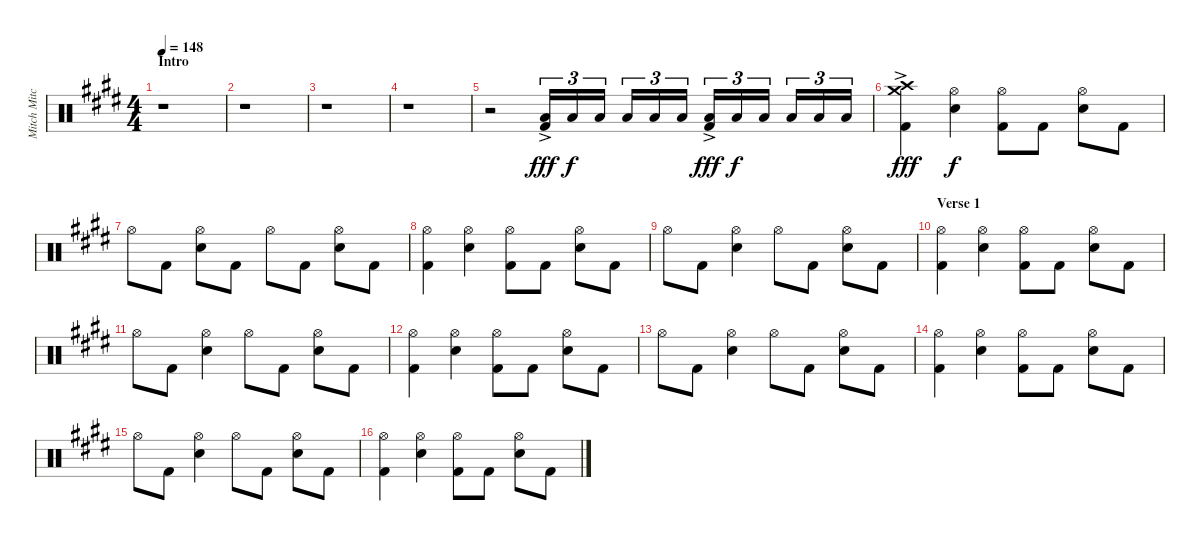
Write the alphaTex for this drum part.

\track ("Mitch Mitchell" "Mitch Mitc") {instrument percussion}
\staff {score}
\articulation defaults
\ts (4 4)
\section ("" "Intro")
\tempo 148
\clef neutral
\ks e
r.1{dy fff} |
r.1 |
r.1 |
r.1 |
r.2 ("Low Tom (hit)"{ac} "Kick (hit) 2"{ac}).16{tu (3 2)} "Low Tom (hit)".16{tu (3 2) dy f} "Low Tom (hit)".16{tu (3 2)} "Low Tom (hit)".16{tu (3 2)} "Low Tom (hit)".16{tu (3 2)} "Low Tom (hit)".16{tu (3 2)} ("Low Tom (hit)"{ac} "Kick (hit) 2"{ac}).16{tu (3 2) dy fff} "Low Tom (hit)".16{tu (3 2) dy f} "Low Tom (hit)".16{tu (3 2)} "Low Tom (hit)".16{tu (3 2)} "Low Tom (hit)".16{tu (3 2)} "Low Tom (hit)".16{tu (3 2)} |
("Crash high (hit)"{ac} "Crash medium (hit)" "Kick (hit) 2"{ac}).4{dy fff} ("Hi-Hat (open)" "Snare (hit) 2").4{dy f} ("Hi-Hat (open)" "Kick (hit) 2").8 "Kick (hit) 2".8 ("Hi-Hat (open)" "Snare (hit) 2").8 "Kick (hit) 2".8 |
"Hi-Hat (open)".8 "Kick (hit) 2".8 ("Hi-Hat (open)" "Snare (hit) 2").8 "Kick (hit) 2".8 "Hi-Hat (open)".8 "Kick (hit) 2".8 ("Hi-Hat (open)" "Snare (hit) 2").8 "Kick (hit) 2".8 |
("Hi-Hat (open)" "Kick (hit) 2").4 ("Hi-Hat (open)" "Snare (hit) 2").4 ("Hi-Hat (open)" "Kick (hit) 2").8 "Kick (hit) 2".8 ("Hi-Hat (open)" "Snare (hit) 2").8 "Kick (hit) 2".8 |
"Hi-Hat (open)".8 "Kick (hit) 2".8 ("Hi-Hat (open)" "Snare (hit) 2").4 "Hi-Hat (open)".8 "Kick (hit) 2".8 ("Hi-Hat (open)" "Snare (hit) 2").8 "Kick (hit) 2".8 |
\section ("" "Verse 1")
("Hi-Hat (open)" "Kick (hit) 2").4 ("Hi-Hat (open)" "Snare (hit) 2").4 ("Hi-Hat (open)" "Kick (hit) 2").8 "Kick (hit) 2".8 ("Hi-Hat (open)" "Snare (hit) 2").8 "Kick (hit) 2".8 |
"Hi-Hat (open)".8 "Kick (hit) 2".8 ("Hi-Hat (open)" "Snare (hit) 2").4 "Hi-Hat (open)".8 "Kick (hit) 2".8 ("Hi-Hat (open)" "Snare (hit) 2").8 "Kick (hit) 2".8 |
("Hi-Hat (open)" "Kick (hit) 2").4 ("Hi-Hat (open)" "Snare (hit) 2").4 ("Hi-Hat (open)" "Kick (hit) 2").8 "Kick (hit) 2".8 ("Hi-Hat (open)" "Snare (hit) 2").8 "Kick (hit) 2".8 |
"Hi-Hat (open)".8 "Kick (hit) 2".8 ("Hi-Hat (open)" "Snare (hit) 2").4 "Hi-Hat (open)".8 "Kick (hit) 2".8 ("Hi-Hat (open)" "Snare (hit) 2").8 "Kick (hit) 2".8 |
("Hi-Hat (open)" "Kick (hit) 2").4 ("Hi-Hat (open)" "Snare (hit) 2").4 ("Hi-Hat (open)" "Kick (hit) 2").8 "Kick (hit) 2".8 ("Hi-Hat (open)" "Snare (hit) 2").8 "Kick (hit) 2".8 |
"Hi-Hat (open)".8 "Kick (hit) 2".8 ("Hi-Hat (open)" "Snare (hit) 2").4 "Hi-Hat (open)".8 "Kick (hit) 2".8 ("Hi-Hat (open)" "Snare (hit) 2").8 "Kick (hit) 2".8 |
("Hi-Hat (open)" "Kick (hit) 2").4 ("Hi-Hat (open)" "Snare (hit) 2").4 ("Hi-Hat (open)" "Kick (hit) 2").8 "Kick (hit) 2".8 ("Hi-Hat (open)" "Snare (hit) 2").8 "Kick (hit) 2".8
